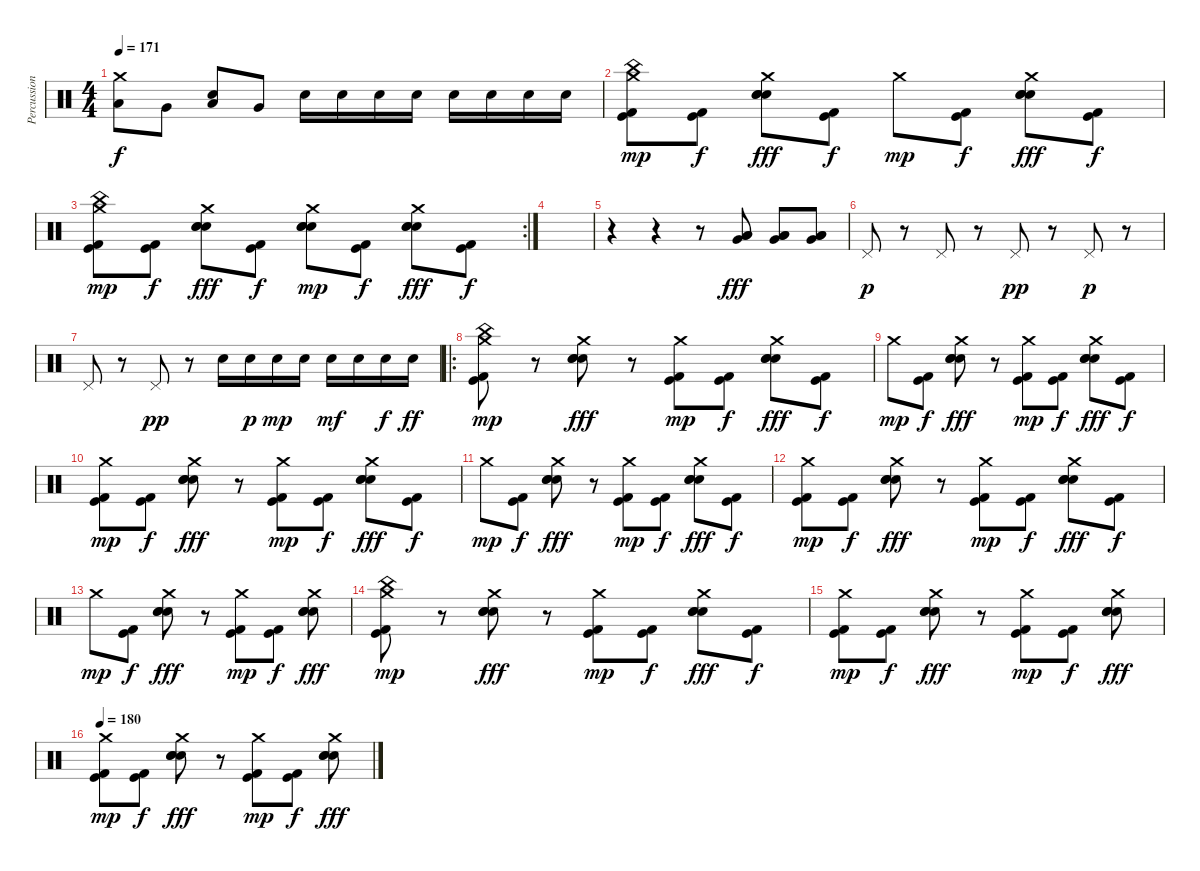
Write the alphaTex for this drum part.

\track ("Percussion" "Percussion") {instrument percussion}
\staff {score}
\articulation defaults
\ts (4 4)
\tempo 171
\clef neutral
\ks c
("Crash medium (hit)" "Low Tom (hit)").8{dy f} "Very Low Tom (hit)".8 ("Electric Snare (hit)" "Low Floor Tom (hit)").8 "Very Low Tom (hit)".8 "Electric Snare (hit)".16 "Electric Snare (hit)".16 "Electric Snare (hit)".16 "Electric Snare (hit)".16 "Electric Snare (hit)".16 "Electric Snare (hit)".16 "Electric Snare (hit)".16 "Electric Snare (hit)".16 |
("China (hit)" "Crash medium (hit)" "Kick (hit)" "Kick (hit) 2").8{dy mp} ("Kick (hit)" "Kick (hit) 2").8{dy f} ("Crash medium (hit)" "Electric Snare (hit)" "Electric Snare (hit)" "Electric Snare (hit)").8{dy fff} ("Kick (hit)" "Kick (hit) 2").8{dy f} "Crash medium (hit)".8{dy mp} ("Kick (hit)" "Kick (hit) 2").8{dy f} ("Crash medium (hit)" "Electric Snare (hit)" "Electric Snare (hit)" "Electric Snare (hit)").8{dy fff} ("Kick (hit)" "Kick (hit) 2").8{dy f} |
\rc 2
("China (hit)" "Crash medium (hit)" "Kick (hit)" "Kick (hit) 2").8{dy mp} ("Kick (hit)" "Kick (hit) 2").8{dy f} ("Crash medium (hit)" "Electric Snare (hit)" "Electric Snare (hit)" "Electric Snare (hit)").8{dy fff} ("Kick (hit)" "Kick (hit) 2").8{dy f} ("Crash medium (hit)" "Electric Snare (hit)" "Electric Snare (hit)" "Electric Snare (hit)").8{dy mp} ("Kick (hit)" "Kick (hit) 2").8{dy f} ("Crash medium (hit)" "Electric Snare (hit)" "Electric Snare (hit)" "Electric Snare (hit)").8{dy fff} ("Kick (hit)" "Kick (hit) 2").8{dy f} |
|
r.4 r.4 r.8 ("Low Floor Tom (hit)" "Very Low Tom (hit)" "Low Floor Tom (hit)").8{dy fff} ("Low Floor Tom (hit)" "Very Low Tom (hit)" "Low Floor Tom (hit)").8 ("Low Floor Tom (hit)" "Very Low Tom (hit)" "Low Floor Tom (hit)").8 |
"Pedal Hi-Hat (hit)".8{dy p} r.8 "Pedal Hi-Hat (hit)".8 r.8 "Pedal Hi-Hat (hit)".8{dy pp} r.8 "Pedal Hi-Hat (hit)".8{dy p} r.8 |
"Pedal Hi-Hat (hit)".8 r.8 "Pedal Hi-Hat (hit)".8{dy pp} r.8 "Electric Snare (hit)".16 "Electric Snare (hit)".16{dy p} "Electric Snare (hit)".16{dy mp} "Electric Snare (hit)".16 "Electric Snare (hit)".16{dy mf} "Electric Snare (hit)".16 "Electric Snare (hit)".16{dy f} "Electric Snare (hit)".16{dy ff} |
\ro
("China (hit)" "Crash medium (hit)" "Kick (hit)" "Kick (hit) 2").8{dy mp} r.8 ("Crash medium (hit)" "Electric Snare (hit)" "Electric Snare (hit)" "Electric Snare (hit)").8{dy fff} r.8 ("Crash medium (hit)" "Kick (hit)" "Kick (hit) 2").8{dy mp} ("Kick (hit)" "Kick (hit) 2").8{dy f} ("Crash medium (hit)" "Electric Snare (hit)" "Electric Snare (hit)" "Electric Snare (hit)").8{dy fff} ("Kick (hit)" "Kick (hit) 2").8{dy f} |
"Crash medium (hit)".8{dy mp} ("Kick (hit)" "Kick (hit) 2").8{dy f} ("Crash medium (hit)" "Electric Snare (hit)" "Electric Snare (hit)" "Electric Snare (hit)").8{dy fff} r.8 ("Crash medium (hit)" "Kick (hit)" "Kick (hit) 2").8{dy mp} ("Kick (hit)" "Kick (hit) 2").8{dy f} ("Crash medium (hit)" "Electric Snare (hit)" "Electric Snare (hit)" "Electric Snare (hit)").8{dy fff} ("Kick (hit)" "Kick (hit) 2").8{dy f} |
("Crash medium (hit)" "Kick (hit)" "Kick (hit) 2").8{dy mp} ("Kick (hit)" "Kick (hit) 2").8{dy f} ("Crash medium (hit)" "Electric Snare (hit)" "Electric Snare (hit)" "Electric Snare (hit)").8{dy fff} r.8 ("Crash medium (hit)" "Kick (hit)" "Kick (hit) 2").8{dy mp} ("Kick (hit)" "Kick (hit) 2").8{dy f} ("Crash medium (hit)" "Electric Snare (hit)" "Electric Snare (hit)" "Electric Snare (hit)").8{dy fff} ("Kick (hit)" "Kick (hit) 2").8{dy f} |
"Crash medium (hit)".8{dy mp} ("Kick (hit)" "Kick (hit) 2").8{dy f} ("Crash medium (hit)" "Electric Snare (hit)" "Electric Snare (hit)" "Electric Snare (hit)").8{dy fff} r.8 ("Crash medium (hit)" "Kick (hit)" "Kick (hit) 2").8{dy mp} ("Kick (hit)" "Kick (hit) 2").8{dy f} ("Crash medium (hit)" "Electric Snare (hit)" "Electric Snare (hit)" "Electric Snare (hit)").8{dy fff} ("Kick (hit)" "Kick (hit) 2").8{dy f} |
("Crash medium (hit)" "Kick (hit)" "Kick (hit) 2").8{dy mp} ("Kick (hit)" "Kick (hit) 2").8{dy f} ("Crash medium (hit)" "Electric Snare (hit)" "Electric Snare (hit)" "Electric Snare (hit)").8{dy fff} r.8 ("Crash medium (hit)" "Kick (hit)" "Kick (hit) 2").8{dy mp} ("Kick (hit)" "Kick (hit) 2").8{dy f} ("Crash medium (hit)" "Electric Snare (hit)" "Electric Snare (hit)" "Electric Snare (hit)").8{dy fff} ("Kick (hit)" "Kick (hit) 2").8{dy f} |
"Crash medium (hit)".8{dy mp} ("Kick (hit)" "Kick (hit) 2").8{dy f} ("Crash medium (hit)" "Electric Snare (hit)" "Electric Snare (hit)" "Electric Snare (hit)").8{dy fff} r.8 ("Crash medium (hit)" "Kick (hit)" "Kick (hit) 2").8{dy mp} ("Kick (hit)" "Kick (hit) 2").8{dy f} ("Crash medium (hit)" "Electric Snare (hit)" "Electric Snare (hit)" "Electric Snare (hit)").8{dy fff} |
("China (hit)" "Crash medium (hit)" "Kick (hit)" "Kick (hit) 2").8{dy mp} r.8 ("Crash medium (hit)" "Electric Snare (hit)" "Electric Snare (hit)" "Electric Snare (hit)").8{dy fff} r.8 ("Crash medium (hit)" "Kick (hit)" "Kick (hit) 2").8{dy mp} ("Kick (hit)" "Kick (hit) 2").8{dy f} ("Crash medium (hit)" "Electric Snare (hit)" "Electric Snare (hit)" "Electric Snare (hit)").8{dy fff} ("Kick (hit)" "Kick (hit) 2").8{dy f} |
("Crash medium (hit)" "Kick (hit)" "Kick (hit) 2").8{dy mp} ("Kick (hit)" "Kick (hit) 2").8{dy f} ("Crash medium (hit)" "Electric Snare (hit)" "Electric Snare (hit)" "Electric Snare (hit)").8{dy fff} r.8 ("Crash medium (hit)" "Kick (hit)" "Kick (hit) 2").8{dy mp} ("Kick (hit)" "Kick (hit) 2").8{dy f} ("Crash medium (hit)" "Electric Snare (hit)" "Electric Snare (hit)" "Electric Snare (hit)").8{dy fff} |
\tempo 180
("Crash medium (hit)" "Kick (hit)" "Kick (hit) 2").8{dy mp} ("Kick (hit)" "Kick (hit) 2").8{dy f} ("Crash medium (hit)" "Electric Snare (hit)" "Electric Snare (hit)" "Electric Snare (hit)").8{dy fff} r.8 ("Crash medium (hit)" "Kick (hit)" "Kick (hit) 2").8{dy mp} ("Kick (hit)" "Kick (hit) 2").8{dy f} ("Crash medium (hit)" "Electric Snare (hit)" "Electric Snare (hit)" "Electric Snare (hit)").8{dy fff}
